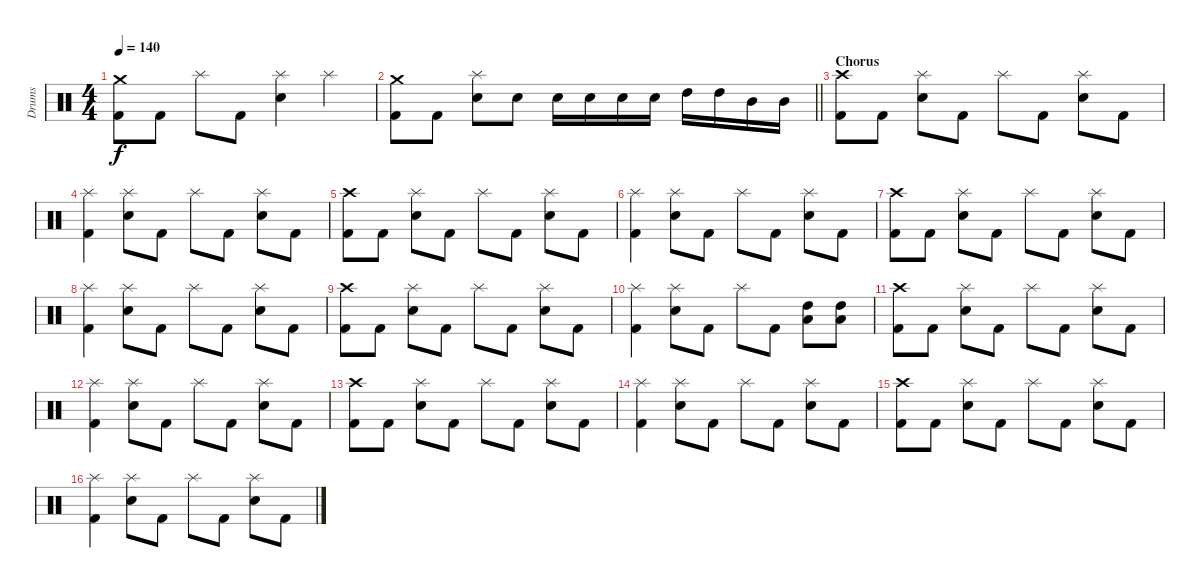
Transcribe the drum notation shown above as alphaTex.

\track ("Drums" "Drums") {instrument percussion}
\staff {score}
\articulation defaults
\ts (4 4)
\tempo 140
\clef neutral
\ks c
("Kick (hit) 2" "Crash medium (hit)").8{dy f} "Kick (hit) 2".8 "Splash (hit)".8 "Kick (hit) 2".8 ("Snare (hit) 2" "Splash (hit)").4 "Splash (hit)".4 |
\barLineRight lightlight
("Kick (hit) 2" "Crash medium (hit)").8 "Kick (hit) 2".8 ("Snare (hit) 2" "Splash (hit)").8 "Snare (hit) 2".8 "Snare (hit) 2".16 "Snare (hit) 2".16 "Snare (hit) 2".16 "Snare (hit) 2".16 "High Tom (hit)".16 "High Tom (hit)".16 "Mid Tom (hit)".16 "Mid Tom (hit)".16 |
\section ("" "Chorus")
("Kick (hit) 2" "Crash high (hit)").8 "Kick (hit) 2".8 ("Snare (hit) 2" "Splash (hit)").8 "Kick (hit) 2".8 "Splash (hit)".8 "Kick (hit) 2".8 ("Snare (hit) 2" "Splash (hit)").8 "Kick (hit) 2".8 |
("Kick (hit) 2" "Splash (hit)").4 ("Snare (hit) 2" "Splash (hit)").8 "Kick (hit) 2".8 "Splash (hit)".8 "Kick (hit) 2".8 ("Snare (hit) 2" "Splash (hit)").8 "Kick (hit) 2".8 |
("Kick (hit) 2" "Crash high (hit)").8 "Kick (hit) 2".8 ("Snare (hit) 2" "Splash (hit)").8 "Kick (hit) 2".8 "Splash (hit)".8 "Kick (hit) 2".8 ("Snare (hit) 2" "Splash (hit)").8 "Kick (hit) 2".8 |
("Kick (hit) 2" "Splash (hit)").4 ("Snare (hit) 2" "Splash (hit)").8 "Kick (hit) 2".8 "Splash (hit)".8 "Kick (hit) 2".8 ("Snare (hit) 2" "Splash (hit)").8 "Kick (hit) 2".8 |
("Kick (hit) 2" "Crash high (hit)").8 "Kick (hit) 2".8 ("Snare (hit) 2" "Splash (hit)").8 "Kick (hit) 2".8 "Splash (hit)".8 "Kick (hit) 2".8 ("Snare (hit) 2" "Splash (hit)").8 "Kick (hit) 2".8 |
("Kick (hit) 2" "Splash (hit)").4 ("Snare (hit) 2" "Splash (hit)").8 "Kick (hit) 2".8 "Splash (hit)".8 "Kick (hit) 2".8 ("Snare (hit) 2" "Splash (hit)").8 "Kick (hit) 2".8 |
("Kick (hit) 2" "Crash high (hit)").8 "Kick (hit) 2".8 ("Snare (hit) 2" "Splash (hit)").8 "Kick (hit) 2".8 "Splash (hit)".8 "Kick (hit) 2".8 ("Snare (hit) 2" "Splash (hit)").8 "Kick (hit) 2".8 |
("Kick (hit) 2" "Splash (hit)").4 ("Snare (hit) 2" "Splash (hit)").8 "Kick (hit) 2".8 "Splash (hit)".8 "Kick (hit) 2".8 ("High Tom (hit)" "Low Tom (hit)").8 ("High Tom (hit)" "Low Tom (hit)").8 |
("Kick (hit) 2" "Crash high (hit)").8 "Kick (hit) 2".8 ("Snare (hit) 2" "Splash (hit)").8 "Kick (hit) 2".8 "Splash (hit)".8 "Kick (hit) 2".8 ("Snare (hit) 2" "Splash (hit)").8 "Kick (hit) 2".8 |
("Kick (hit) 2" "Splash (hit)").4 ("Snare (hit) 2" "Splash (hit)").8 "Kick (hit) 2".8 "Splash (hit)".8 "Kick (hit) 2".8 ("Snare (hit) 2" "Splash (hit)").8 "Kick (hit) 2".8 |
("Kick (hit) 2" "Crash high (hit)").8 "Kick (hit) 2".8 ("Snare (hit) 2" "Splash (hit)").8 "Kick (hit) 2".8 "Splash (hit)".8 "Kick (hit) 2".8 ("Snare (hit) 2" "Splash (hit)").8 "Kick (hit) 2".8 |
("Kick (hit) 2" "Splash (hit)").4 ("Snare (hit) 2" "Splash (hit)").8 "Kick (hit) 2".8 "Splash (hit)".8 "Kick (hit) 2".8 ("Snare (hit) 2" "Splash (hit)").8 "Kick (hit) 2".8 |
("Kick (hit) 2" "Crash high (hit)").8 "Kick (hit) 2".8 ("Snare (hit) 2" "Splash (hit)").8 "Kick (hit) 2".8 "Splash (hit)".8 "Kick (hit) 2".8 ("Snare (hit) 2" "Splash (hit)").8 "Kick (hit) 2".8 |
("Kick (hit) 2" "Splash (hit)").4 ("Snare (hit) 2" "Splash (hit)").8 "Kick (hit) 2".8 "Splash (hit)".8 "Kick (hit) 2".8 ("Snare (hit) 2" "Splash (hit)").8 "Kick (hit) 2".8
